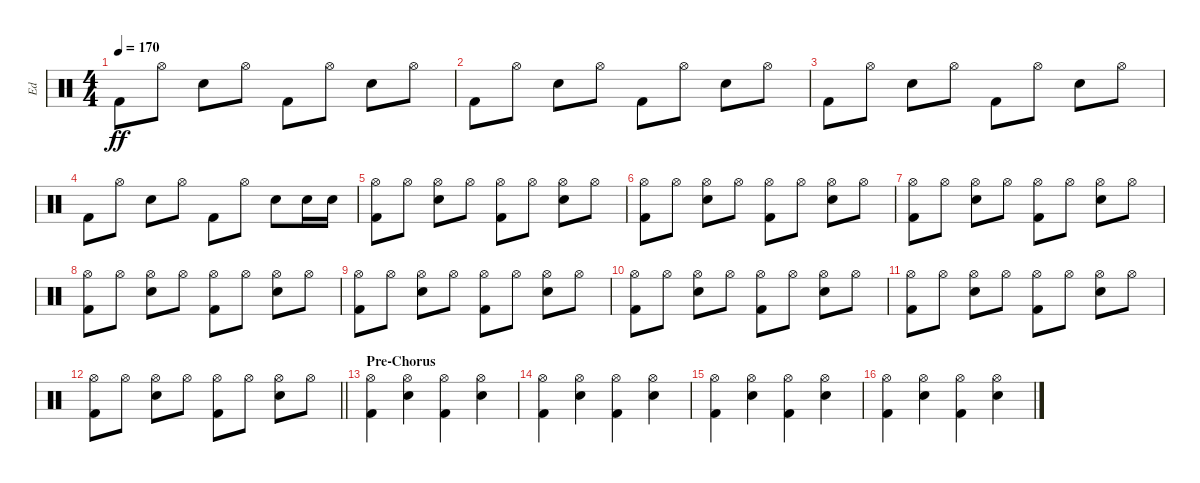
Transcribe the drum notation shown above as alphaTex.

\track ("Ed" "Ed") {instrument percussion}
\staff {score}
\articulation defaults
\ts (4 4)
\tempo 170
\clef neutral
\ks c "Kick (hit) 2".8{dy ff} "Hi-Hat (open)".8 "Snare (hit) 2".8 "Hi-Hat (open)".8 "Kick (hit) 2".8 "Hi-Hat (open)".8 "Snare (hit) 2".8 "Hi-Hat (open)".8
|
"Kick (hit) 2".8 "Hi-Hat (open)".8 "Snare (hit) 2".8 "Hi-Hat (open)".8 "Kick (hit) 2".8 "Hi-Hat (open)".8 "Snare (hit) 2".8 "Hi-Hat (open)".8 |
"Kick (hit) 2".8 "Hi-Hat (open)".8 "Snare (hit) 2".8 "Hi-Hat (open)".8 "Kick (hit) 2".8 "Hi-Hat (open)".8 "Snare (hit) 2".8 "Hi-Hat (open)".8 |
"Kick (hit) 2".8 "Hi-Hat (open)".8 "Snare (hit) 2".8 "Hi-Hat (open)".8 "Kick (hit) 2".8 "Hi-Hat (open)".8 "Snare (hit) 2".8 "Snare (hit) 2".16 "Snare (hit) 2".16 |
("Hi-Hat (open)" "Kick (hit) 2").8 "Hi-Hat (open)".8 ("Hi-Hat (open)" "Snare (hit) 2").8 "Hi-Hat (open)".8 ("Hi-Hat (open)" "Kick (hit) 2").8 "Hi-Hat (open)".8 ("Hi-Hat (open)" "Snare (hit) 2").8 "Hi-Hat (open)".8 |
("Hi-Hat (open)" "Kick (hit) 2").8 "Hi-Hat (open)".8 ("Hi-Hat (open)" "Snare (hit) 2").8 "Hi-Hat (open)".8 ("Hi-Hat (open)" "Kick (hit) 2").8 "Hi-Hat (open)".8 ("Hi-Hat (open)" "Snare (hit) 2").8 "Hi-Hat (open)".8 |
("Hi-Hat (open)" "Kick (hit) 2").8 "Hi-Hat (open)".8 ("Hi-Hat (open)" "Snare (hit) 2").8 "Hi-Hat (open)".8 ("Hi-Hat (open)" "Kick (hit) 2").8 "Hi-Hat (open)".8 ("Hi-Hat (open)" "Snare (hit) 2").8 "Hi-Hat (open)".8 |
("Hi-Hat (open)" "Kick (hit) 2").8 "Hi-Hat (open)".8 ("Hi-Hat (open)" "Snare (hit) 2").8 "Hi-Hat (open)".8 ("Hi-Hat (open)" "Kick (hit) 2").8 "Hi-Hat (open)".8 ("Hi-Hat (open)" "Snare (hit) 2").8 "Hi-Hat (open)".8 |
("Hi-Hat (open)" "Kick (hit) 2").8 "Hi-Hat (open)".8 ("Hi-Hat (open)" "Snare (hit) 2").8 "Hi-Hat (open)".8 ("Hi-Hat (open)" "Kick (hit) 2").8 "Hi-Hat (open)".8 ("Hi-Hat (open)" "Snare (hit) 2").8 "Hi-Hat (open)".8 |
("Hi-Hat (open)" "Kick (hit) 2").8 "Hi-Hat (open)".8 ("Hi-Hat (open)" "Snare (hit) 2").8 "Hi-Hat (open)".8 ("Hi-Hat (open)" "Kick (hit) 2").8 "Hi-Hat (open)".8 ("Hi-Hat (open)" "Snare (hit) 2").8 "Hi-Hat (open)".8 |
("Hi-Hat (open)" "Kick (hit) 2").8 "Hi-Hat (open)".8 ("Hi-Hat (open)" "Snare (hit) 2").8 "Hi-Hat (open)".8 ("Hi-Hat (open)" "Kick (hit) 2").8 "Hi-Hat (open)".8 ("Hi-Hat (open)" "Snare (hit) 2").8 "Hi-Hat (open)".8 |
\barLineRight lightlight
("Hi-Hat (open)" "Kick (hit) 2").8 "Hi-Hat (open)".8 ("Hi-Hat (open)" "Snare (hit) 2").8 "Hi-Hat (open)".8 ("Hi-Hat (open)" "Kick (hit) 2").8 "Hi-Hat (open)".8 ("Hi-Hat (open)" "Snare (hit) 2").8 "Hi-Hat (open)".8 |
\section ("" "Pre-Chorus")
("Hi-Hat (open)" "Kick (hit) 2").4 ("Hi-Hat (open)" "Snare (hit) 2").4 ("Hi-Hat (open)" "Kick (hit) 2").4 ("Hi-Hat (open)" "Snare (hit) 2").4 |
("Hi-Hat (open)" "Kick (hit) 2").4 ("Hi-Hat (open)" "Snare (hit) 2").4 ("Hi-Hat (open)" "Kick (hit) 2").4 ("Hi-Hat (open)" "Snare (hit) 2").4 |
("Hi-Hat (open)" "Kick (hit) 2").4 ("Hi-Hat (open)" "Snare (hit) 2").4 ("Hi-Hat (open)" "Kick (hit) 2").4 ("Hi-Hat (open)" "Snare (hit) 2").4 |
("Hi-Hat (open)" "Kick (hit) 2").4 ("Hi-Hat (open)" "Snare (hit) 2").4 ("Hi-Hat (open)" "Kick (hit) 2").4 ("Hi-Hat (open)" "Snare (hit) 2").4
